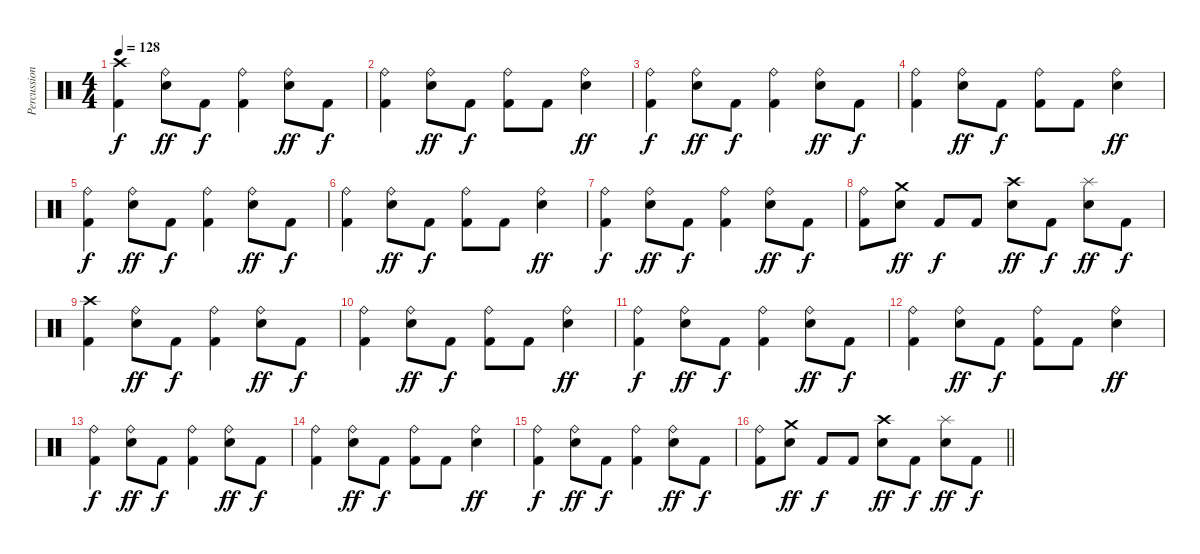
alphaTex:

\track ("Percussion" "Percussion") {instrument percussion}
\staff {score}
\articulation defaults
\ts (4 4)
\tempo 128
\clef neutral
\ks c
("Crash high (hit)" "Kick (hit) 2").4{dy f} ("Ride (bell)" "Snare (hit) 2").8{dy ff} "Kick (hit) 2".8{dy f} ("Ride (bell)" "Kick (hit) 2").4 ("Ride (bell)" "Snare (hit) 2").8{dy ff} "Kick (hit) 2".8{dy f} |
("Ride (bell)" "Kick (hit) 2").4 ("Ride (bell)" "Snare (hit) 2").8{dy ff} "Kick (hit) 2".8{dy f} ("Ride (bell)" "Kick (hit) 2").8 "Kick (hit) 2".8 ("Ride (bell)" "Snare (hit) 2").4{dy ff} |
("Ride (bell)" "Kick (hit) 2").4{dy f} ("Ride (bell)" "Snare (hit) 2").8{dy ff} "Kick (hit) 2".8{dy f} ("Ride (bell)" "Kick (hit) 2").4 ("Ride (bell)" "Snare (hit) 2").8{dy ff} "Kick (hit) 2".8{dy f} |
("Ride (bell)" "Kick (hit) 2").4 ("Ride (bell)" "Snare (hit) 2").8{dy ff} "Kick (hit) 2".8{dy f} ("Ride (bell)" "Kick (hit) 2").8 "Kick (hit) 2".8 ("Ride (bell)" "Snare (hit) 2").4{dy ff} |
("Ride (bell)" "Kick (hit) 2").4{dy f} ("Ride (bell)" "Snare (hit) 2").8{dy ff} "Kick (hit) 2".8{dy f} ("Ride (bell)" "Kick (hit) 2").4 ("Ride (bell)" "Snare (hit) 2").8{dy ff} "Kick (hit) 2".8{dy f} |
("Ride (bell)" "Kick (hit) 2").4 ("Ride (bell)" "Snare (hit) 2").8{dy ff} "Kick (hit) 2".8{dy f} ("Ride (bell)" "Kick (hit) 2").8 "Kick (hit) 2".8 ("Ride (bell)" "Snare (hit) 2").4{dy ff} |
("Ride (bell)" "Kick (hit) 2").4{dy f} ("Ride (bell)" "Snare (hit) 2").8{dy ff} "Kick (hit) 2".8{dy f} ("Ride (bell)" "Kick (hit) 2").4 ("Ride (bell)" "Snare (hit) 2").8{dy ff} "Kick (hit) 2".8{dy f} |
("Ride (bell)" "Kick (hit) 2").8 ("Crash medium (hit)" "Snare (hit) 2").8{dy ff} "Kick (hit) 2".8{dy f} "Kick (hit) 2".8 ("Crash high (hit)" "Snare (hit) 2").8{dy ff} "Kick (hit) 2".8{dy f} ("Splash (hit)" "Snare (hit) 2").8{dy ff} "Kick (hit) 2".8{dy f} |
("Crash high (hit)" "Kick (hit) 2").4 ("Ride (bell)" "Snare (hit) 2").8{dy ff} "Kick (hit) 2".8{dy f} ("Ride (bell)" "Kick (hit) 2").4 ("Ride (bell)" "Snare (hit) 2").8{dy ff} "Kick (hit) 2".8{dy f} |
("Ride (bell)" "Kick (hit) 2").4 ("Ride (bell)" "Snare (hit) 2").8{dy ff} "Kick (hit) 2".8{dy f} ("Ride (bell)" "Kick (hit) 2").8 "Kick (hit) 2".8 ("Ride (bell)" "Snare (hit) 2").4{dy ff} |
("Ride (bell)" "Kick (hit) 2").4{dy f} ("Ride (bell)" "Snare (hit) 2").8{dy ff} "Kick (hit) 2".8{dy f} ("Ride (bell)" "Kick (hit) 2").4 ("Ride (bell)" "Snare (hit) 2").8{dy ff} "Kick (hit) 2".8{dy f} |
("Ride (bell)" "Kick (hit) 2").4 ("Ride (bell)" "Snare (hit) 2").8{dy ff} "Kick (hit) 2".8{dy f} ("Ride (bell)" "Kick (hit) 2").8 "Kick (hit) 2".8 ("Ride (bell)" "Snare (hit) 2").4{dy ff} |
("Ride (bell)" "Kick (hit) 2").4{dy f} ("Ride (bell)" "Snare (hit) 2").8{dy ff} "Kick (hit) 2".8{dy f} ("Ride (bell)" "Kick (hit) 2").4 ("Ride (bell)" "Snare (hit) 2").8{dy ff} "Kick (hit) 2".8{dy f} |
("Ride (bell)" "Kick (hit) 2").4 ("Ride (bell)" "Snare (hit) 2").8{dy ff} "Kick (hit) 2".8{dy f} ("Ride (bell)" "Kick (hit) 2").8 "Kick (hit) 2".8 ("Ride (bell)" "Snare (hit) 2").4{dy ff} |
("Ride (bell)" "Kick (hit) 2").4{dy f} ("Ride (bell)" "Snare (hit) 2").8{dy ff} "Kick (hit) 2".8{dy f} ("Ride (bell)" "Kick (hit) 2").4 ("Ride (bell)" "Snare (hit) 2").8{dy ff} "Kick (hit) 2".8{dy f} |
\barLineRight lightlight
("Ride (bell)" "Kick (hit) 2").8 ("Crash medium (hit)" "Snare (hit) 2").8{dy ff} "Kick (hit) 2".8{dy f} "Kick (hit) 2".8 ("Crash high (hit)" "Snare (hit) 2").8{dy ff} "Kick (hit) 2".8{dy f} ("Splash (hit)" "Snare (hit) 2").8{dy ff} "Kick (hit) 2".8{dy f}
